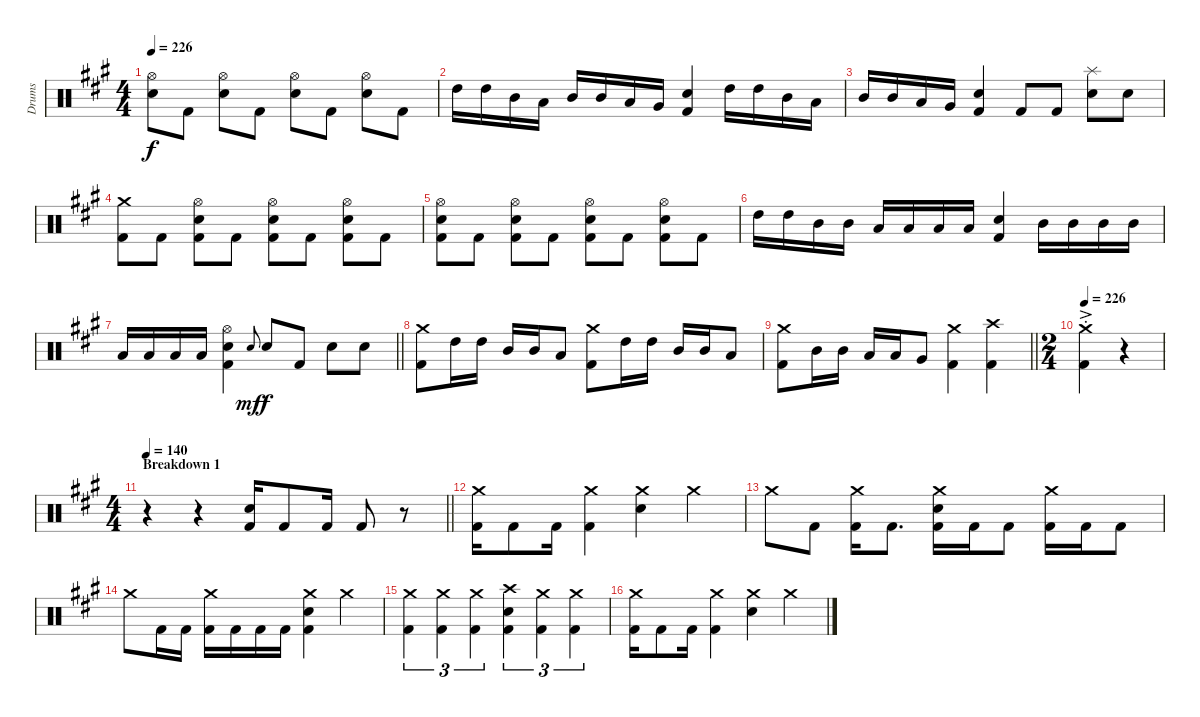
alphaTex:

\track ("Drums" "Drums") {instrument percussion}
\staff {score}
\articulation defaults
\ts (4 4)
\tempo 226
\clef neutral
\ks a
("Hi-Hat (open)" "Snare (hit) 2").8{dy f} "Kick (hit) 2".8 ("Hi-Hat (open)" "Snare (hit) 2").8 "Kick (hit) 2".8 ("Hi-Hat (open)" "Snare (hit) 2").8 "Kick (hit) 2".8 ("Hi-Hat (open)" "Snare (hit) 2").8 "Kick (hit) 2".8 |
"High Tom (hit)".16 "High Tom (hit)".16 "Mid Tom (hit)".16 "Low Tom (hit)".16 "Mid Tom (hit)".16 "Mid Tom (hit)".16 "Low Tom (hit)".16 "Very Low Tom (hit)".16 ("Snare (hit) 2" "Kick (hit) 2").4 "High Tom (hit)".16 "High Tom (hit)".16 "Mid Tom (hit)".16 "Low Tom (hit)".16 |
"Mid Tom (hit)".16 "Mid Tom (hit)".16 "Low Tom (hit)".16 "Very Low Tom (hit)".16 ("Snare (hit) 2" "Kick (hit) 2").4 "Kick (hit) 2".8 "Kick (hit) 2".8 ("Splash (hit)" "Snare (hit) 2").8 "Snare (hit) 2".8 |
("Crash medium (hit)" "Kick (hit) 2").8 "Kick (hit) 2".8 ("Hi-Hat (open)" "Snare (hit) 2" "Kick (hit) 2").8 "Kick (hit) 2".8 ("Hi-Hat (open)" "Snare (hit) 2" "Kick (hit) 2").8 "Kick (hit) 2".8 ("Hi-Hat (open)" "Snare (hit) 2" "Kick (hit) 2").8 "Kick (hit) 2".8 |
("Hi-Hat (open)" "Snare (hit) 2" "Kick (hit) 2").8 "Kick (hit) 2".8 ("Hi-Hat (open)" "Snare (hit) 2" "Kick (hit) 2").8 "Kick (hit) 2".8 ("Hi-Hat (open)" "Snare (hit) 2" "Kick (hit) 2").8 "Kick (hit) 2".8 ("Hi-Hat (open)" "Snare (hit) 2" "Kick (hit) 2").8 "Kick (hit) 2".8 |
"High Tom (hit)".16 "High Tom (hit)".16 "Mid Tom (hit)".16 "Mid Tom (hit)".16 "Low Tom (hit)".16 "Low Tom (hit)".16 "Low Tom (hit)".16 "Low Tom (hit)".16 ("Snare (hit) 2" "Kick (hit) 2").4 "Mid Tom (hit)".16 "Mid Tom (hit)".16 "Mid Tom (hit)".16 "Mid Tom (hit)".16 |
\barLineRight lightlight "Low Tom (hit)".16 "Low Tom (hit)".16 "Low Tom (hit)".16 "Low Tom (hit)".16
("Hi-Hat (open)" "Snare (hit) 2" "Kick (hit) 2").4 "Snare (hit)".8{gr onbeat dy mf} "Snare (hit) 2".8{dy f} "Kick (hit) 2".8 "Snare (hit) 2".8 "Snare (hit) 2".8 |
("Crash medium (hit)" "Kick (hit) 2").8 "High Tom (hit)".16 "High Tom (hit)".16 "Mid Tom (hit)".16 "Mid Tom (hit)".16 "Low Tom (hit)".8 ("Crash medium (hit)" "Kick (hit) 2").8 "High Tom (hit)".16 "High Tom (hit)".16 "Mid Tom (hit)".16 "Mid Tom (hit)".16 "Low Tom (hit)".8 |
\barLineRight lightlight
("Crash medium (hit)" "Kick (hit) 2").8 "Mid Tom (hit)".16 "Mid Tom (hit)".16 "Low Tom (hit)".16 "Low Tom (hit)".16 "Very Low Tom (hit)".8 ("Crash medium (hit)" "Kick (hit) 2").4 ("Crash high (hit)" "Kick (hit) 2").4 |
\ts (2 4)
\tempo 226
("Crash medium (hit)"{ac st} "Kick (hit) 2").4 r.4 |
\ts (4 4)
\section ("" "Breakdown 1")
\tempo 140
\barLineRight lightlight
r.4 r.4 ("Snare (hit) 2" "Kick (hit) 2").16 "Kick (hit) 2".8 "Kick (hit) 2".16 "Kick (hit) 2".8 r.8 |
("Crash medium (hit)" "Kick (hit) 2").16 "Kick (hit) 2".8 "Kick (hit) 2".16 ("Crash medium (hit)" "Kick (hit) 2").4 ("Crash medium (hit)" "Snare (hit) 2").4 "Crash medium (hit)".4 |
"Crash medium (hit)".8 "Kick (hit) 2".8 ("Crash medium (hit)" "Kick (hit) 2").16 "Kick (hit) 2".8{d} ("Crash medium (hit)" "Snare (hit) 2" "Kick (hit) 2").16 "Kick (hit) 2".16 "Kick (hit) 2".8 ("Crash medium (hit)" "Kick (hit) 2").16 "Kick (hit) 2".16 "Kick (hit) 2".8 |
"Crash medium (hit)".8 "Kick (hit) 2".16 "Kick (hit) 2".16 ("Crash medium (hit)" "Kick (hit) 2").16 "Kick (hit) 2".16 "Kick (hit) 2".16 "Kick (hit) 2".16 ("Crash medium (hit)" "Snare (hit) 2" "Kick (hit) 2").4 "Crash medium (hit)".4 |
("Crash medium (hit)" "Kick (hit) 2").4{tu (3 2)} ("Crash medium (hit)" "Kick (hit) 2").4{tu (3 2)} ("Crash medium (hit)" "Kick (hit) 2").4{tu (3 2)} ("Crash high (hit)" "Snare (hit) 2" "Kick (hit) 2").4{tu (3 2)} ("Crash medium (hit)" "Kick (hit) 2").4{tu (3 2)} ("Crash medium (hit)" "Kick (hit) 2").4{tu (3 2)} |
("Crash medium (hit)" "Kick (hit) 2").16 "Kick (hit) 2".8 "Kick (hit) 2".16 ("Crash medium (hit)" "Kick (hit) 2").4 ("Crash medium (hit)" "Snare (hit) 2").4 "Crash medium (hit)".4
